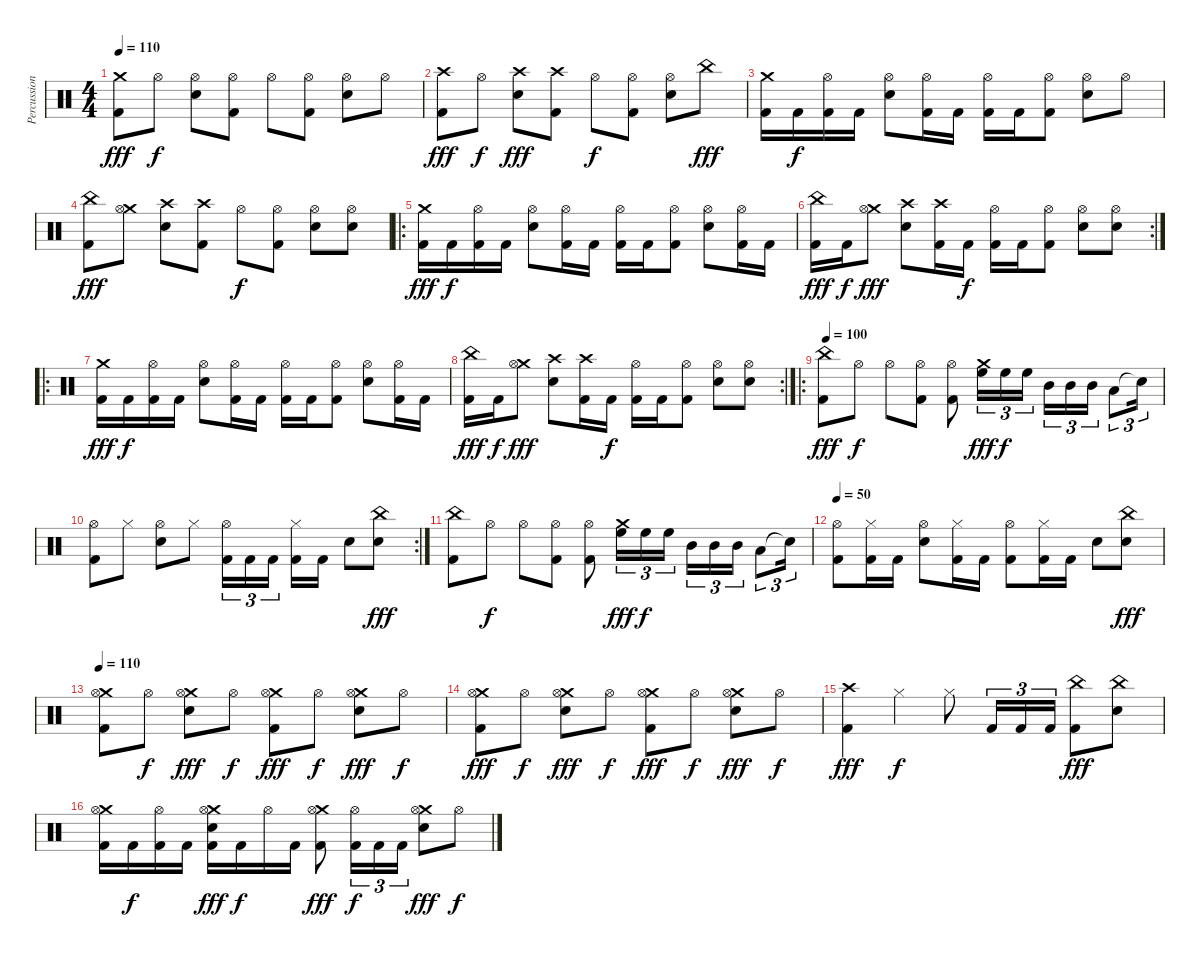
\track ("Percussion" "Percussion") {instrument percussion}
\staff {score}
\articulation defaults
\ts (4 4)
\tempo 110
\clef neutral
\ks c
("Crash medium (hit)" "Kick (hit) 2").8{dy fff} "Hi-Hat (open)".8{dy f} ("Hi-Hat (open)" "Electric Snare (hit)").8 ("Hi-Hat (open)" "Kick (hit) 2").8 "Hi-Hat (open)".8 ("Hi-Hat (open)" "Kick (hit) 2").8 ("Hi-Hat (open)" "Electric Snare (hit)").8 "Hi-Hat (open)".8 |
("Crash high (hit)" "Kick (hit) 2").8{dy fff} "Hi-Hat (open)".8{dy f} ("Crash high (hit)" "Electric Snare (hit)").8{dy fff} ("Crash high (hit)" "Kick (hit) 2").8 "Hi-Hat (open)".8{dy f} ("Hi-Hat (open)" "Kick (hit) 2").8 ("Hi-Hat (open)" "Electric Snare (hit)").8 "China (hit)".8{dy fff} |
("Crash medium (hit)" "Kick (hit) 2").16 "Kick (hit) 2".16{dy f} ("Hi-Hat (open)" "Kick (hit) 2").16 "Kick (hit) 2".16 ("Hi-Hat (open)" "Electric Snare (hit)").8 ("Hi-Hat (open)" "Kick (hit) 2").16 "Kick (hit) 2".16 ("Hi-Hat (open)" "Kick (hit) 2").16 "Kick (hit) 2".16 ("Hi-Hat (open)" "Kick (hit) 2").8 ("Hi-Hat (open)" "Electric Snare (hit)").8 "Hi-Hat (open)".8 |
("China (hit)" "Kick (hit) 2").8{dy fff} ("Crash medium (hit)" "Hi-Hat (open)").8 ("Crash high (hit)" "Electric Snare (hit)").8 ("Crash high (hit)" "Kick (hit) 2").8 "Hi-Hat (open)".8{dy f} ("Hi-Hat (open)" "Kick (hit) 2").8 ("Hi-Hat (open)" "Electric Snare (hit)").8 ("Hi-Hat (open)" "Electric Snare (hit)").8 |
\ro
("Crash medium (hit)" "Kick (hit) 2").16{dy fff} "Kick (hit) 2".16{dy f} ("Hi-Hat (open)" "Kick (hit) 2").16 "Kick (hit) 2".16 ("Hi-Hat (open)" "Electric Snare (hit)").8 ("Hi-Hat (open)" "Kick (hit) 2").16 "Kick (hit) 2".16 ("Hi-Hat (open)" "Kick (hit) 2").16 "Kick (hit) 2".16 ("Hi-Hat (open)" "Kick (hit) 2").8 ("Hi-Hat (open)" "Electric Snare (hit)").8 ("Hi-Hat (open)" "Kick (hit) 2").16 "Kick (hit) 2".16 |
\rc 2
("China (hit)" "Kick (hit) 2").16{dy fff} "Kick (hit) 2".16{dy f} ("Crash medium (hit)" "Hi-Hat (open)").8{dy fff} ("Crash high (hit)" "Electric Snare (hit)").8 ("Crash high (hit)" "Kick (hit) 2").16 "Kick (hit) 2".16{dy f} ("Hi-Hat (open)" "Kick (hit) 2").16 "Kick (hit) 2".16 ("Hi-Hat (open)" "Kick (hit) 2").8 ("Hi-Hat (open)" "Electric Snare (hit)").8 ("Hi-Hat (open)" "Electric Snare (hit)").8 |
\ro
("Crash medium (hit)" "Kick (hit) 2").16{dy fff} "Kick (hit) 2".16{dy f} ("Hi-Hat (open)" "Kick (hit) 2").16 "Kick (hit) 2".16 ("Hi-Hat (open)" "Electric Snare (hit)").8 ("Hi-Hat (open)" "Kick (hit) 2").16 "Kick (hit) 2".16 ("Hi-Hat (open)" "Kick (hit) 2").16 "Kick (hit) 2".16 ("Hi-Hat (open)" "Kick (hit) 2").8 ("Hi-Hat (open)" "Electric Snare (hit)").8 ("Hi-Hat (open)" "Kick (hit) 2").16 "Kick (hit) 2".16 |
\rc 2
("China (hit)" "Kick (hit) 2").16{dy fff} "Kick (hit) 2".16{dy f} ("Crash medium (hit)" "Hi-Hat (open)").8{dy fff} ("Crash high (hit)" "Electric Snare (hit)").8 ("Crash high (hit)" "Kick (hit) 2").16 "Kick (hit) 2".16{dy f} ("Hi-Hat (open)" "Kick (hit) 2").16 "Kick (hit) 2".16 ("Hi-Hat (open)" "Kick (hit) 2").8 ("Hi-Hat (open)" "Electric Snare (hit)").8 ("Hi-Hat (open)" "Electric Snare (hit)").8 |
\ro
\tempo 100
("China (hit)" "Kick (hit) 2").8{dy fff} "Hi-Hat (open)".8{dy f} "Hi-Hat (open)".8 ("Hi-Hat (open)" "Kick (hit) 2").8 ("Hi-Hat (open)" "Kick (hit) 2").8 ("Crash medium (hit)" "High Floor Tom (hit)").16{tu (3 2) dy fff} "High Floor Tom (hit)".16{tu (3 2) dy f} "High Floor Tom (hit)".16{tu (3 2)} "Mid Tom (hit)".16{tu (3 2)} "Mid Tom (hit)".16{tu (3 2)} "Mid Tom (hit)".16{tu (3 2)} "Low Tom (hit)".8{tu (3 2)} "Snare (hit)"{t}.16{tu (3 2)} |
\rc 2
("Hi-Hat (open)" "Kick (hit) 2").8 "Hi-Hat (closed)".8 ("Hi-Hat (open)" "Electric Snare (hit)").8 "Hi-Hat (closed)".8 ("Hi-Hat (open)" "Kick (hit) 2").16{tu (3 2)} "Kick (hit) 2".16{tu (3 2)} "Kick (hit) 2".16{tu (3 2)} ("Hi-Hat (closed)" "Kick (hit) 2").16 "Kick (hit) 2".16 "Electric Snare (hit)".8 ("China (hit)" "Electric Snare (hit)").8{dy fff} |
("China (hit)" "Kick (hit) 2").8 "Hi-Hat (open)".8{dy f} "Hi-Hat (open)".8 ("Hi-Hat (open)" "Kick (hit) 2").8 ("Hi-Hat (open)" "Kick (hit) 2").8 ("Crash medium (hit)" "High Floor Tom (hit)").16{tu (3 2) dy fff} "High Floor Tom (hit)".16{tu (3 2) dy f} "High Floor Tom (hit)".16{tu (3 2)} "Mid Tom (hit)".16{tu (3 2)} "Mid Tom (hit)".16{tu (3 2)} "Mid Tom (hit)".16{tu (3 2)} "Low Tom (hit)".8{tu (3 2)} "Snare (hit)"{t}.16{tu (3 2)} |
\tempo 50
("Hi-Hat (open)" "Kick (hit) 2").8 ("Hi-Hat (closed)" "Kick (hit) 2").16 "Kick (hit) 2".16 ("Hi-Hat (open)" "Electric Snare (hit)").8 ("Hi-Hat (closed)" "Kick (hit) 2").16 "Kick (hit) 2".16 ("Hi-Hat (open)" "Kick (hit) 2").8 ("Hi-Hat (closed)" "Kick (hit) 2").16 "Kick (hit) 2".16 "Electric Snare (hit)".8 ("China (hit)" "Electric Snare (hit)").8{dy fff} |
\tempo 110
("Crash medium (hit)" "Hi-Hat (open)" "Kick (hit) 2").8 "Hi-Hat (open)".8{dy f} ("Crash medium (hit)" "Hi-Hat (open)" "Electric Snare (hit)").8{dy fff} "Hi-Hat (open)".8{dy f} ("Crash medium (hit)" "Hi-Hat (open)" "Kick (hit) 2").8{dy fff} "Hi-Hat (open)".8{dy f} ("Crash medium (hit)" "Hi-Hat (open)" "Electric Snare (hit)").8{dy fff} "Hi-Hat (open)".8{dy f} |
("Crash medium (hit)" "Hi-Hat (open)" "Kick (hit) 2").8{dy fff} "Hi-Hat (open)".8{dy f} ("Crash medium (hit)" "Hi-Hat (open)" "Electric Snare (hit)").8{dy fff} "Hi-Hat (open)".8{dy f} ("Crash medium (hit)" "Hi-Hat (open)" "Kick (hit) 2").8{dy fff} "Hi-Hat (open)".8{dy f} ("Crash medium (hit)" "Hi-Hat (open)" "Electric Snare (hit)").8{dy fff} "Hi-Hat (open)".8{dy f} |
("Crash high (hit)" "Kick (hit) 2").4{dy fff} "Hi-Hat (closed)".4{dy f} "Hi-Hat (closed)".8 "Kick (hit) 2".16{tu (3 2)} "Kick (hit) 2".16{tu (3 2)} "Kick (hit) 2".16{tu (3 2)} ("China (hit)" "Kick (hit) 2").8{dy fff} ("China (hit)" "Electric Snare (hit)").8 |
("Crash medium (hit)" "Hi-Hat (open)" "Kick (hit) 2").16 "Kick (hit) 2".16{dy f} ("Hi-Hat (open)" "Kick (hit) 2").16 "Kick (hit) 2".16 ("Crash medium (hit)" "Hi-Hat (open)" "Electric Snare (hit)" "Kick (hit) 2").16{dy fff} "Kick (hit) 2".16{dy f} "Hi-Hat (open)".16 "Kick (hit) 2".16 ("Crash medium (hit)" "Hi-Hat (open)" "Kick (hit) 2").8{dy fff} ("Hi-Hat (open)" "Kick (hit) 2").16{tu (3 2) dy f} "Kick (hit) 2".16{tu (3 2)} "Kick (hit) 2".16{tu (3 2)} ("Crash medium (hit)" "Hi-Hat (open)" "Electric Snare (hit)").8{dy fff} "Hi-Hat (open)".8{dy f}
